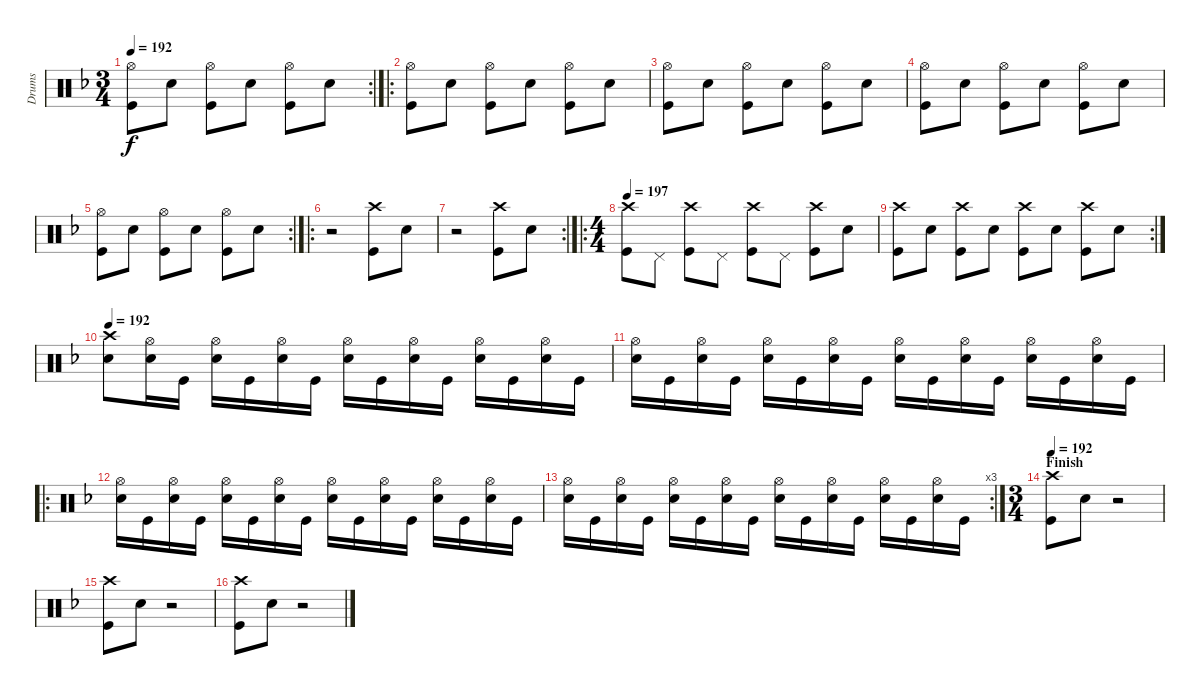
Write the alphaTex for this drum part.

\track ("Drums" "Drums") {instrument percussion}
\staff {score}
\articulation defaults
\rc 2
\ts (3 4)
\tempo 192
\clef neutral
\ks f
("Hi-Hat (open)" "Kick (hit)").8{dy f} "Electric Snare (hit)".8 ("Hi-Hat (open)" "Kick (hit)").8 "Electric Snare (hit)".8 ("Hi-Hat (open)" "Kick (hit)").8 "Electric Snare (hit)".8 |
\ro
("Hi-Hat (open)" "Kick (hit)").8 "Electric Snare (hit)".8 ("Hi-Hat (open)" "Kick (hit)").8 "Electric Snare (hit)".8 ("Hi-Hat (open)" "Kick (hit)").8 "Electric Snare (hit)".8 |
("Hi-Hat (open)" "Kick (hit)").8 "Electric Snare (hit)".8 ("Hi-Hat (open)" "Kick (hit)").8 "Electric Snare (hit)".8 ("Hi-Hat (open)" "Kick (hit)").8 "Electric Snare (hit)".8 |
("Hi-Hat (open)" "Kick (hit)").8 "Electric Snare (hit)".8 ("Hi-Hat (open)" "Kick (hit)").8 "Electric Snare (hit)".8 ("Hi-Hat (open)" "Kick (hit)").8 "Electric Snare (hit)".8 |
\rc 2
("Hi-Hat (open)" "Kick (hit)").8 "Electric Snare (hit)".8 ("Hi-Hat (open)" "Kick (hit)").8 "Electric Snare (hit)".8 ("Hi-Hat (open)" "Kick (hit)").8 "Electric Snare (hit)".8 |
\ro
r.2 ("Crash high (hit)" "Kick (hit)").8{volume 13} "Snare (hit)"{x}.8{volume 0} |
\rc 2
r.2 ("Crash high (hit)" "Kick (hit)").8{volume 13} "Snare (hit)"{x}.8{volume 0} |
\ro
\ts (4 4)
\tempo 197
("Crash high (hit)" "Kick (hit)").8{volume 13} "Pedal Hi-Hat (hit)"{x}.8{volume 0} ("Crash high (hit)" "Kick (hit)").8{volume 13} "Pedal Hi-Hat (hit)"{x}.8{volume 0} ("Crash high (hit)" "Kick (hit)").8{volume 13} "Pedal Hi-Hat (hit)"{x}.8{volume 0} ("Crash high (hit)" "Kick (hit)").8{volume 13} "Snare (hit)"{x}.8{volume 0} |
\rc 2
("Crash high (hit)" "Kick (hit)").8{volume 13} "Snare (hit)"{x}.8{volume 0} ("Crash high (hit)" "Kick (hit)").8{volume 13} "Snare (hit)"{x}.8{volume 0} ("Crash high (hit)" "Kick (hit)").8{volume 13} "Snare (hit)"{x}.8{volume 0} ("Crash high (hit)" "Kick (hit)").8{volume 13} "Snare (hit)"{x}.8{volume 0} |
\tempo 192
("Crash high (hit)" "Electric Snare (hit)").8{volume 13} ("Hi-Hat (open)" "Electric Snare (hit)").16 "Kick (hit)".16 ("Hi-Hat (open)" "Electric Snare (hit)").16 "Kick (hit)".16 ("Hi-Hat (open)" "Electric Snare (hit)").16 "Kick (hit)".16 ("Hi-Hat (open)" "Electric Snare (hit)").16 "Kick (hit)".16 ("Hi-Hat (open)" "Electric Snare (hit)").16 "Kick (hit)".16 ("Hi-Hat (open)" "Electric Snare (hit)").16 "Kick (hit)".16 ("Hi-Hat (open)" "Electric Snare (hit)").16 "Kick (hit)".16 |
("Hi-Hat (open)" "Electric Snare (hit)").16 "Kick (hit)".16 ("Hi-Hat (open)" "Electric Snare (hit)").16 "Kick (hit)".16 ("Hi-Hat (open)" "Electric Snare (hit)").16 "Kick (hit)".16 ("Hi-Hat (open)" "Electric Snare (hit)").16 "Kick (hit)".16 ("Hi-Hat (open)" "Electric Snare (hit)").16 "Kick (hit)".16 ("Hi-Hat (open)" "Electric Snare (hit)").16 "Kick (hit)".16 ("Hi-Hat (open)" "Electric Snare (hit)").16 "Kick (hit)".16 ("Hi-Hat (open)" "Electric Snare (hit)").16 "Kick (hit)".16 |
\ro
("Hi-Hat (open)" "Electric Snare (hit)").16 "Kick (hit)".16 ("Hi-Hat (open)" "Electric Snare (hit)").16 "Kick (hit)".16 ("Hi-Hat (open)" "Electric Snare (hit)").16 "Kick (hit)".16 ("Hi-Hat (open)" "Electric Snare (hit)").16 "Kick (hit)".16 ("Hi-Hat (open)" "Electric Snare (hit)").16 "Kick (hit)".16 ("Hi-Hat (open)" "Electric Snare (hit)").16 "Kick (hit)".16 ("Hi-Hat (open)" "Electric Snare (hit)").16 "Kick (hit)".16 ("Hi-Hat (open)" "Electric Snare (hit)").16 "Kick (hit)".16 |
\rc 3
("Hi-Hat (open)" "Electric Snare (hit)").16 "Kick (hit)".16 ("Hi-Hat (open)" "Electric Snare (hit)").16 "Kick (hit)".16 ("Hi-Hat (open)" "Electric Snare (hit)").16 "Kick (hit)".16 ("Hi-Hat (open)" "Electric Snare (hit)").16 "Kick (hit)".16 ("Hi-Hat (open)" "Electric Snare (hit)").16 "Kick (hit)".16 ("Hi-Hat (open)" "Electric Snare (hit)").16 "Kick (hit)".16 ("Hi-Hat (open)" "Electric Snare (hit)").16 "Kick (hit)".16 ("Hi-Hat (open)" "Electric Snare (hit)").16 "Kick (hit)".16 |
\ts (3 4)
\section ("" "Finish")
\tempo 192
("Crash high (hit)" "Kick (hit)").8 "Snare (hit)"{x}.8{volume 0} r.2 |
("Crash high (hit)" "Kick (hit)").8{volume 13} "Snare (hit)"{x}.8{volume 0} r.2 |
("Crash high (hit)" "Kick (hit)").8{volume 13} "Snare (hit)"{x}.8{volume 0} r.2
